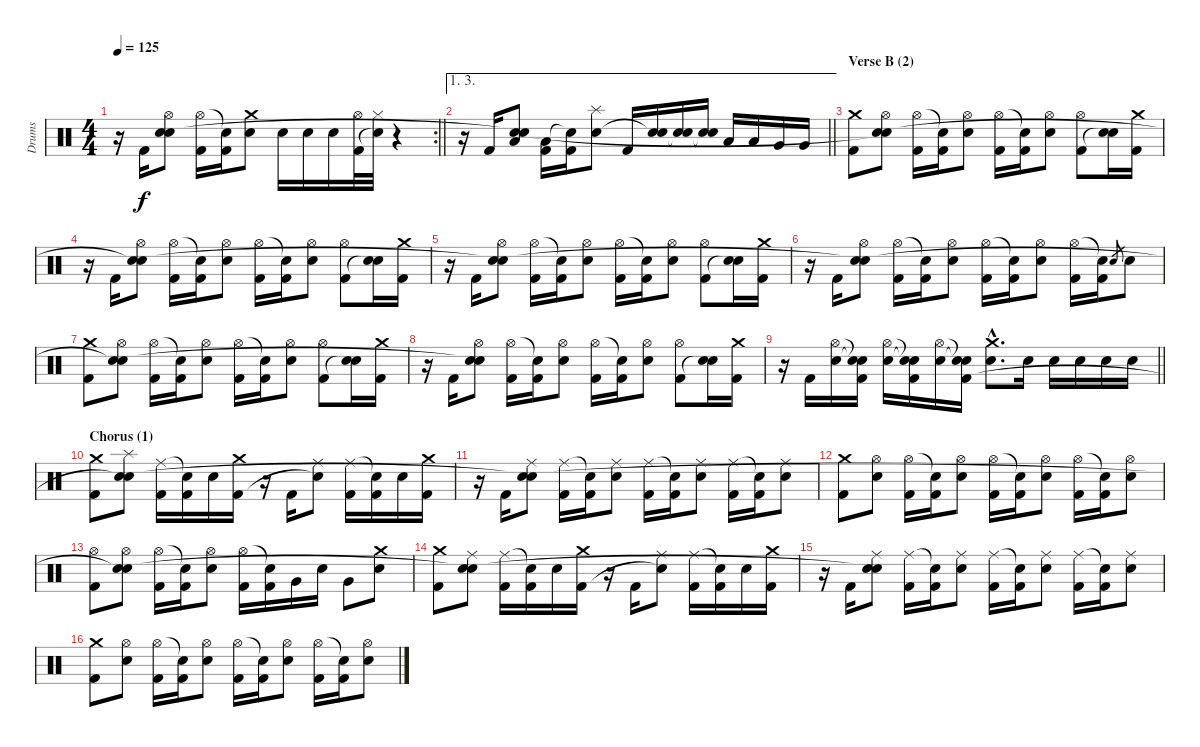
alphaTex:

\track ("Drums" "Drums") {instrument percussion}
\staff {score}
\articulation defaults
\rc 2
\ts (4 4)
\tempo 125
\clef neutral
\barLineRight lightlight
\ks c
r.16{dy f} "Kick (hit) 2".16 ("Hi-Hat (open)" "Electric Snare (hit)" "Snare (hit)"{t}).8 ("Hi-Hat (open)" "Kick (hit) 2").16 ("Snare (hit)"{t} "Kick (hit) 2").16 ("Crash medium (hit)" "Electric Snare (hit)").8 "Electric Snare (hit)".16 "Electric Snare (hit)".16 "Electric Snare (hit)".16 ("Hi-Hat (open)" "Kick (hit) 2").32 ("Hi-Hat (closed)" "Snare (hit)"{t}).32 r.4 |
\ae (1 3)
\barLineRight lightlight
r.16 "Kick (hit) 2".16 ("Electric Snare (hit)" "Low Floor Tom (hit)" "Snare (hit)"{t}).8 ("Low Floor Tom (hit)" "Kick (hit) 2").16 ("Snare (hit)"{t} "Kick (hit) 2").16 ("Splash (hit)" "Electric Snare (hit)").8 "Kick (hit) 2".16 ("Electric Snare (hit)" "Snare (hit)"{t}).16 ("Electric Snare (hit)" "Snare (hit)"{t}).16 ("Electric Snare (hit)" "Snare (hit)"{t}).16 "Low Tom (hit)".16 "Low Tom (hit)".16 "Very Low Tom (hit)".16 "Very Low Tom (hit)".16 |
\section ("" "Verse B (2)")
("Crash medium (hit)" "Kick (hit) 2").8 ("Hi-Hat (open)" "Electric Snare (hit)" "Snare (hit)"{t}).8 ("Hi-Hat (open)" "Kick (hit) 2").16 ("Snare (hit)"{t} "Kick (hit) 2").16 ("Hi-Hat (open)" "Electric Snare (hit)").8 ("Hi-Hat (open)" "Kick (hit) 2").16 ("Snare (hit)"{t} "Kick (hit) 2").16 ("Hi-Hat (open)" "Electric Snare (hit)").8 ("Hi-Hat (open)" "Kick (hit) 2").8 ("Electric Snare (hit)" "Snare (hit)"{t}).16 ("Crash medium (hit)" "Kick (hit) 2").16 |
r.16 "Kick (hit) 2".16 ("Hi-Hat (open)" "Electric Snare (hit)" "Snare (hit)"{t}).8 ("Hi-Hat (open)" "Kick (hit) 2").16 ("Snare (hit)"{t} "Kick (hit) 2").16 ("Hi-Hat (open)" "Electric Snare (hit)").8 ("Hi-Hat (open)" "Kick (hit) 2").16 ("Snare (hit)"{t} "Kick (hit) 2").16 ("Hi-Hat (open)" "Electric Snare (hit)").8 ("Hi-Hat (open)" "Kick (hit) 2").8 ("Electric Snare (hit)" "Snare (hit)"{t}).16 ("Crash medium (hit)" "Kick (hit) 2").16 |
r.16 "Kick (hit) 2".16 ("Hi-Hat (open)" "Electric Snare (hit)" "Snare (hit)"{t}).8 ("Hi-Hat (open)" "Kick (hit) 2").16 ("Snare (hit)"{t} "Kick (hit) 2").16 ("Hi-Hat (open)" "Electric Snare (hit)").8 ("Hi-Hat (open)" "Kick (hit) 2").16 ("Snare (hit)"{t} "Kick (hit) 2").16 ("Hi-Hat (open)" "Electric Snare (hit)").8 ("Hi-Hat (open)" "Kick (hit) 2").8 ("Electric Snare (hit)" "Snare (hit)"{t}).16 ("Crash medium (hit)" "Kick (hit) 2").16 |
r.16 "Kick (hit) 2".16 ("Hi-Hat (open)" "Electric Snare (hit)" "Snare (hit)"{t}).8 ("Hi-Hat (open)" "Kick (hit) 2").16 ("Snare (hit)"{t} "Kick (hit) 2").16 ("Hi-Hat (open)" "Electric Snare (hit)").8 ("Hi-Hat (open)" "Kick (hit) 2").16 ("Snare (hit)"{t} "Kick (hit) 2").16 ("Hi-Hat (open)" "Electric Snare (hit)").8 ("Hi-Hat (open)" "Kick (hit) 2").16 ("Snare (hit)"{t} "Kick (hit) 2").16 "Electric Snare (hit)".8{gr} "Electric Snare (hit)".8 |
("Crash medium (hit)" "Kick (hit) 2").8 ("Hi-Hat (open)" "Electric Snare (hit)" "Snare (hit)"{t}).8 ("Hi-Hat (open)" "Kick (hit) 2").16 ("Snare (hit)"{t} "Kick (hit) 2").16 ("Hi-Hat (open)" "Electric Snare (hit)").8 ("Hi-Hat (open)" "Kick (hit) 2").16 ("Snare (hit)"{t} "Kick (hit) 2").16 ("Hi-Hat (open)" "Electric Snare (hit)").8 ("Hi-Hat (open)" "Kick (hit) 2").8 ("Electric Snare (hit)" "Snare (hit)"{t}).16 ("Crash medium (hit)" "Kick (hit) 2").16 |
r.16 "Kick (hit) 2".16 ("Hi-Hat (open)" "Electric Snare (hit)" "Snare (hit)"{t}).8 ("Hi-Hat (open)" "Kick (hit) 2").16 ("Snare (hit)"{t} "Kick (hit) 2").16 ("Hi-Hat (open)" "Electric Snare (hit)").8 ("Hi-Hat (open)" "Kick (hit) 2").16 ("Snare (hit)"{t} "Kick (hit) 2").16 ("Hi-Hat (open)" "Electric Snare (hit)").8 ("Hi-Hat (open)" "Kick (hit) 2").8 ("Electric Snare (hit)" "Snare (hit)"{t}).16 ("Crash medium (hit)" "Kick (hit) 2").16 |
\barLineRight lightlight
r.16 "Kick (hit) 2".16 ("Hi-Hat (open)" "Electric Snare (hit)").16 ("Snare (hit)"{t} "Snare (hit)"{t} "Kick (hit) 2").16 ("Hi-Hat (open)" "Electric Snare (hit)").16 ("Snare (hit)"{t} "Snare (hit)"{t} "Kick (hit) 2").16 ("Hi-Hat (open)" "Electric Snare (hit)").16 ("Snare (hit)"{t} "Snare (hit)"{t} "Kick (hit) 2").16 ("Crash medium (hit)"{hac} "Electric Snare (hit)"{hac}).8{d} "Electric Snare (hit)".16 "Electric Snare (hit)".16 "Electric Snare (hit)".16 "Electric Snare (hit)".16 "Electric Snare (hit)".16 |
\section ("" "Chorus (1)")
("Crash medium (hit)" "Kick (hit) 2").8 ("Splash (hit)" "Electric Snare (hit)" "Snare (hit)"{t}).8 ("Ride (middle)" "Kick (hit) 2").16 ("Snare (hit)"{t} "Kick (hit) 2").16 "Electric Snare (hit)".16 ("Crash medium (hit)" "Kick (hit) 2").16 r.16 "Kick (hit) 2".16 ("Ride (middle)" "Snare (hit)"{t}).8 ("Ride (middle)" "Kick (hit) 2").16 ("Snare (hit)"{t} "Kick (hit) 2").16 "Electric Snare (hit)".16 ("Crash medium (hit)" "Kick (hit) 2").16 |
r.16 "Kick (hit) 2".16 ("Ride (middle)" "Electric Snare (hit)" "Snare (hit)"{t}).8 ("Ride (middle)" "Kick (hit) 2").16 ("Snare (hit)"{t} "Kick (hit) 2").16 ("Ride (middle)" "Electric Snare (hit)").8 ("Ride (middle)" "Kick (hit) 2").16 ("Snare (hit)"{t} "Kick (hit) 2").16 ("Ride (middle)" "Electric Snare (hit)").8 ("Ride (middle)" "Kick (hit) 2").16 ("Snare (hit)"{t} "Kick (hit) 2").16 ("Ride (middle)" "Electric Snare (hit)").8 |
("Crash medium (hit)" "Kick (hit) 2").8 ("Hi-Hat (open)" "Electric Snare (hit)").8 ("Hi-Hat (open)" "Kick (hit) 2").16 ("Snare (hit)"{t} "Kick (hit) 2").16 ("Hi-Hat (open)" "Electric Snare (hit)").8 ("Hi-Hat (open)" "Kick (hit) 2").16 ("Snare (hit)"{t} "Kick (hit) 2").16 ("Hi-Hat (open)" "Electric Snare (hit)").8 ("Hi-Hat (open)" "Kick (hit) 2").16 ("Snare (hit)"{t} "Kick (hit) 2").16 ("Hi-Hat (open)" "Electric Snare (hit)").8 |
("Hi-Hat (open)" "Kick (hit) 2").8 ("Hi-Hat (open)" "Electric Snare (hit)" "Snare (hit)"{t}).8 ("Hi-Hat (open)" "Kick (hit) 2").16 ("Snare (hit)"{t} "Kick (hit) 2").16 ("Hi-Hat (open)" "Electric Snare (hit)").8 ("Hi-Hat (open)" "Kick (hit) 2").16 ("Snare (hit)"{t} "Kick (hit) 2").16 "Very Low Tom (hit)".16 "Electric Snare (hit)".16 "Very Low Tom (hit)".8 ("Crash medium (hit)" "Electric Snare (hit)").8 |
("Crash medium (hit)" "Kick (hit) 2").8 ("Ride (middle)" "Electric Snare (hit)" "Snare (hit)"{t}).8 ("Ride (middle)" "Kick (hit) 2").16 ("Snare (hit)"{t} "Kick (hit) 2").16 "Electric Snare (hit)".16 ("Crash medium (hit)" "Kick (hit) 2").16 r.16 "Kick (hit) 2".16 ("Ride (middle)" "Snare (hit)"{t}).8 ("Ride (middle)" "Kick (hit) 2").16 ("Snare (hit)"{t} "Kick (hit) 2").16 "Electric Snare (hit)".16 ("Crash medium (hit)" "Kick (hit) 2").16 |
r.16 "Kick (hit) 2".16 ("Ride (middle)" "Electric Snare (hit)" "Snare (hit)"{t}).8 ("Ride (middle)" "Kick (hit) 2").16 ("Snare (hit)"{t} "Kick (hit) 2").16 ("Ride (middle)" "Electric Snare (hit)").8 ("Ride (middle)" "Kick (hit) 2").16 ("Snare (hit)"{t} "Kick (hit) 2").16 ("Ride (middle)" "Electric Snare (hit)").8 ("Ride (middle)" "Kick (hit) 2").16 ("Snare (hit)"{t} "Kick (hit) 2").16 ("Ride (middle)" "Electric Snare (hit)").8 |
("Crash medium (hit)" "Kick (hit) 2").8 ("Hi-Hat (open)" "Electric Snare (hit)").8 ("Hi-Hat (open)" "Kick (hit) 2").16 ("Snare (hit)"{t} "Kick (hit) 2").16 ("Hi-Hat (open)" "Electric Snare (hit)").8 ("Hi-Hat (open)" "Kick (hit) 2").16 ("Snare (hit)"{t} "Kick (hit) 2").16 ("Hi-Hat (open)" "Electric Snare (hit)").8 ("Hi-Hat (open)" "Kick (hit) 2").16 ("Snare (hit)"{t} "Kick (hit) 2").16 ("Hi-Hat (open)" "Electric Snare (hit)").8
